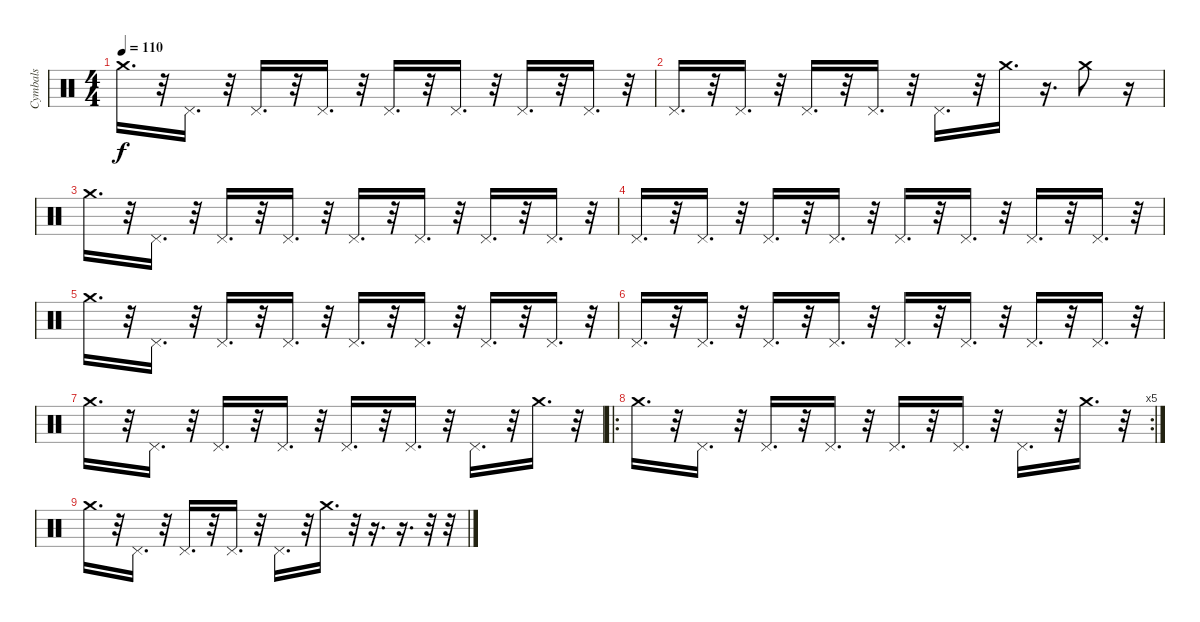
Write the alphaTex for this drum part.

\track ("Cymbals" "Cymbals") {instrument percussion}
\staff {score}
\articulation defaults
\ts (4 4)
\tempo 110
\clef neutral
\ks c "Crash medium (hit)".16{d dy f}
r.32 "Pedal Hi-Hat (hit)".16{d} r.32 "Pedal Hi-Hat (hit)".16{d} r.32 "Pedal Hi-Hat (hit)".16{d} r.32 "Pedal Hi-Hat (hit)".16{d} r.32 "Pedal Hi-Hat (hit)".16{d} r.32 "Pedal Hi-Hat (hit)".16{d} r.32 "Pedal Hi-Hat (hit)".16{d} r.32 |
"Pedal Hi-Hat (hit)".16{d} r.32 "Pedal Hi-Hat (hit)".16{d} r.32 "Pedal Hi-Hat (hit)".16{d} r.32 "Pedal Hi-Hat (hit)".16{d} r.32 "Pedal Hi-Hat (hit)".16{d} r.32 "Crash medium (hit)".16{d} r.16{d} "Crash medium (hit)".8 r.16 |
"Crash medium (hit)".16{d} r.32 "Pedal Hi-Hat (hit)".16{d} r.32 "Pedal Hi-Hat (hit)".16{d} r.32 "Pedal Hi-Hat (hit)".16{d} r.32 "Pedal Hi-Hat (hit)".16{d} r.32 "Pedal Hi-Hat (hit)".16{d} r.32 "Pedal Hi-Hat (hit)".16{d} r.32 "Pedal Hi-Hat (hit)".16{d} r.32 |
"Pedal Hi-Hat (hit)".16{d} r.32 "Pedal Hi-Hat (hit)".16{d} r.32 "Pedal Hi-Hat (hit)".16{d} r.32 "Pedal Hi-Hat (hit)".16{d} r.32 "Pedal Hi-Hat (hit)".16{d} r.32 "Pedal Hi-Hat (hit)".16{d} r.32 "Pedal Hi-Hat (hit)".16{d} r.32 "Pedal Hi-Hat (hit)".16{d} r.32 |
"Crash medium (hit)".16{d} r.32 "Pedal Hi-Hat (hit)".16{d} r.32 "Pedal Hi-Hat (hit)".16{d} r.32 "Pedal Hi-Hat (hit)".16{d} r.32 "Pedal Hi-Hat (hit)".16{d} r.32 "Pedal Hi-Hat (hit)".16{d} r.32 "Pedal Hi-Hat (hit)".16{d} r.32 "Pedal Hi-Hat (hit)".16{d} r.32 |
"Pedal Hi-Hat (hit)".16{d} r.32 "Pedal Hi-Hat (hit)".16{d} r.32 "Pedal Hi-Hat (hit)".16{d} r.32 "Pedal Hi-Hat (hit)".16{d} r.32 "Pedal Hi-Hat (hit)".16{d} r.32 "Pedal Hi-Hat (hit)".16{d} r.32 "Pedal Hi-Hat (hit)".16{d} r.32 "Pedal Hi-Hat (hit)".16{d} r.32 |
"Crash medium (hit)".16{d} r.32 "Pedal Hi-Hat (hit)".16{d} r.32 "Pedal Hi-Hat (hit)".16{d} r.32 "Pedal Hi-Hat (hit)".16{d} r.32 "Pedal Hi-Hat (hit)".16{d} r.32 "Pedal Hi-Hat (hit)".16{d} r.32 "Pedal Hi-Hat (hit)".16{d} r.32 "Crash medium (hit)".16{d} r.32 |
\ro
\rc 5 "Crash medium (hit)".16{d}
r.32 "Pedal Hi-Hat (hit)".16{d} r.32 "Pedal Hi-Hat (hit)".16{d} r.32 "Pedal Hi-Hat (hit)".16{d} r.32 "Pedal Hi-Hat (hit)".16{d} r.32 "Pedal Hi-Hat (hit)".16{d} r.32 "Pedal Hi-Hat (hit)".16{d} r.32 "Crash medium (hit)".16{d} r.32 |
"Crash medium (hit)".16{d} r.32 "Pedal Hi-Hat (hit)".16{d} r.32 "Pedal Hi-Hat (hit)".16{d} r.32 "Pedal Hi-Hat (hit)".16{d} r.32 "Pedal Hi-Hat (hit)".16{d} r.32 "Crash medium (hit)".16{d} r.32 r.16{d} r.16{d} r.32 r.32
